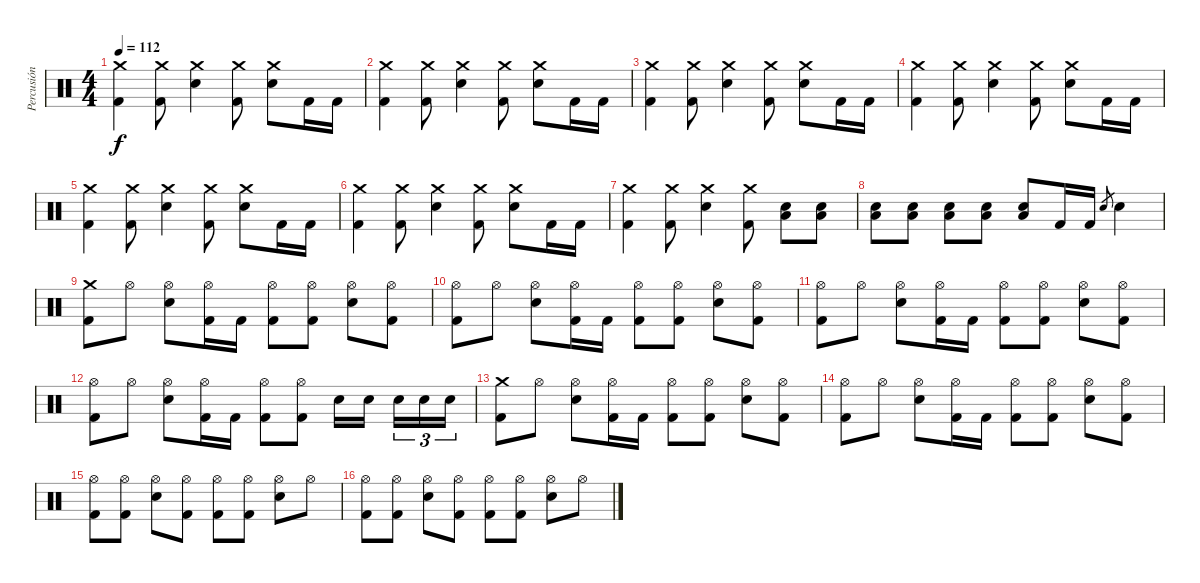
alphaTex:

\track ("Percusión" "Percusión") {instrument percussion}
\staff {score}
\articulation defaults
\ts (4 4)
\tempo 112
\clef neutral
\ks c
("Crash medium (hit)" "Kick (hit) 2").4{dy f} ("Crash medium (hit)" "Kick (hit) 2").8 ("Crash medium (hit)" "Electric Snare (hit)").4 ("Crash medium (hit)" "Kick (hit) 2").8 ("Crash medium (hit)" "Electric Snare (hit)").8 "Kick (hit) 2".16 "Kick (hit) 2".16 |
("Crash medium (hit)" "Kick (hit) 2").4 ("Crash medium (hit)" "Kick (hit) 2").8 ("Crash medium (hit)" "Electric Snare (hit)").4 ("Crash medium (hit)" "Kick (hit) 2").8 ("Crash medium (hit)" "Electric Snare (hit)").8 "Kick (hit) 2".16 "Kick (hit) 2".16 |
("Crash medium (hit)" "Kick (hit) 2").4 ("Crash medium (hit)" "Kick (hit) 2").8 ("Crash medium (hit)" "Electric Snare (hit)").4 ("Crash medium (hit)" "Kick (hit) 2").8 ("Crash medium (hit)" "Electric Snare (hit)").8 "Kick (hit) 2".16 "Kick (hit) 2".16 |
("Crash medium (hit)" "Kick (hit) 2").4 ("Crash medium (hit)" "Kick (hit) 2").8 ("Crash medium (hit)" "Electric Snare (hit)").4 ("Crash medium (hit)" "Kick (hit) 2").8 ("Crash medium (hit)" "Electric Snare (hit)").8 "Kick (hit) 2".16 "Kick (hit) 2".16 |
("Crash medium (hit)" "Kick (hit) 2").4 ("Crash medium (hit)" "Kick (hit) 2").8 ("Crash medium (hit)" "Electric Snare (hit)").4 ("Crash medium (hit)" "Kick (hit) 2").8 ("Crash medium (hit)" "Electric Snare (hit)").8 "Kick (hit) 2".16 "Kick (hit) 2".16 |
("Crash medium (hit)" "Kick (hit) 2").4 ("Crash medium (hit)" "Kick (hit) 2").8 ("Crash medium (hit)" "Electric Snare (hit)").4 ("Crash medium (hit)" "Kick (hit) 2").8 ("Crash medium (hit)" "Electric Snare (hit)").8 "Kick (hit) 2".16 "Kick (hit) 2".16 |
("Crash medium (hit)" "Kick (hit) 2").4 ("Crash medium (hit)" "Kick (hit) 2").8 ("Crash medium (hit)" "Electric Snare (hit)").4 ("Crash medium (hit)" "Kick (hit) 2").8 ("Electric Snare (hit)" "Low Floor Tom (hit)").8 ("Electric Snare (hit)" "Low Floor Tom (hit)").8 |
("Electric Snare (hit)" "Low Floor Tom (hit)").8 ("Electric Snare (hit)" "Low Floor Tom (hit)").8 ("Electric Snare (hit)" "Low Floor Tom (hit)").8 ("Electric Snare (hit)" "Low Floor Tom (hit)").8 ("Electric Snare (hit)" "Low Floor Tom (hit)").8 "Kick (hit) 2".16 "Kick (hit) 2".16 "Electric Snare (hit)".8{gr} "Electric Snare (hit)".4 |
("Crash medium (hit)" "Kick (hit) 2").8 "Hi-Hat (open)".8 ("Hi-Hat (open)" "Electric Snare (hit)").8 ("Hi-Hat (open)" "Kick (hit) 2").16 "Kick (hit) 2".16 ("Hi-Hat (open)" "Kick (hit) 2").8 ("Hi-Hat (open)" "Kick (hit) 2").8 ("Hi-Hat (open)" "Electric Snare (hit)").8 ("Hi-Hat (open)" "Kick (hit) 2").8 |
("Hi-Hat (open)" "Kick (hit) 2").8 "Hi-Hat (open)".8 ("Hi-Hat (open)" "Electric Snare (hit)").8 ("Hi-Hat (open)" "Kick (hit) 2").16 "Kick (hit) 2".16 ("Hi-Hat (open)" "Kick (hit) 2").8 ("Hi-Hat (open)" "Kick (hit) 2").8 ("Hi-Hat (open)" "Electric Snare (hit)").8 ("Hi-Hat (open)" "Kick (hit) 2").8 |
("Hi-Hat (open)" "Kick (hit) 2").8 "Hi-Hat (open)".8 ("Hi-Hat (open)" "Electric Snare (hit)").8 ("Hi-Hat (open)" "Kick (hit) 2").16 "Kick (hit) 2".16 ("Hi-Hat (open)" "Kick (hit) 2").8 ("Hi-Hat (open)" "Kick (hit) 2").8 ("Hi-Hat (open)" "Electric Snare (hit)").8 ("Hi-Hat (open)" "Kick (hit) 2").8 |
("Hi-Hat (open)" "Kick (hit) 2").8 "Hi-Hat (open)".8 ("Hi-Hat (open)" "Electric Snare (hit)").8 ("Hi-Hat (open)" "Kick (hit) 2").16 "Kick (hit) 2".16 ("Hi-Hat (open)" "Kick (hit) 2").8 ("Hi-Hat (open)" "Kick (hit) 2").8 "Electric Snare (hit)".16 "Electric Snare (hit)".16{beam splitsecondary} "Electric Snare (hit)".16{tu (3 2)} "Electric Snare (hit)".16{tu (3 2)} "Electric Snare (hit)".16{tu (3 2)} |
("Crash medium (hit)" "Kick (hit) 2").8 "Hi-Hat (open)".8 ("Hi-Hat (open)" "Electric Snare (hit)").8 ("Hi-Hat (open)" "Kick (hit) 2").16 "Kick (hit) 2".16 ("Hi-Hat (open)" "Kick (hit) 2").8 ("Hi-Hat (open)" "Kick (hit) 2").8 ("Hi-Hat (open)" "Electric Snare (hit)").8 ("Hi-Hat (open)" "Kick (hit) 2").8 |
("Hi-Hat (open)" "Kick (hit) 2").8 "Hi-Hat (open)".8 ("Hi-Hat (open)" "Electric Snare (hit)").8 ("Hi-Hat (open)" "Kick (hit) 2").16 "Kick (hit) 2".16 ("Hi-Hat (open)" "Kick (hit) 2").8 ("Hi-Hat (open)" "Kick (hit) 2").8 ("Hi-Hat (open)" "Electric Snare (hit)").8 ("Hi-Hat (open)" "Kick (hit) 2").8 |
("Hi-Hat (open)" "Kick (hit) 2").8 ("Hi-Hat (open)" "Kick (hit) 2").8 ("Hi-Hat (open)" "Electric Snare (hit)").8 ("Hi-Hat (open)" "Kick (hit) 2").8 ("Hi-Hat (open)" "Kick (hit) 2").8 ("Hi-Hat (open)" "Kick (hit) 2").8 ("Hi-Hat (open)" "Electric Snare (hit)").8 "Hi-Hat (open)".8 |
("Hi-Hat (open)" "Kick (hit) 2").8 ("Hi-Hat (open)" "Kick (hit) 2").8 ("Hi-Hat (open)" "Electric Snare (hit)").8 ("Hi-Hat (open)" "Kick (hit) 2").8 ("Hi-Hat (open)" "Kick (hit) 2").8 ("Hi-Hat (open)" "Kick (hit) 2").8 ("Hi-Hat (open)" "Electric Snare (hit)").8 "Hi-Hat (open)".8
